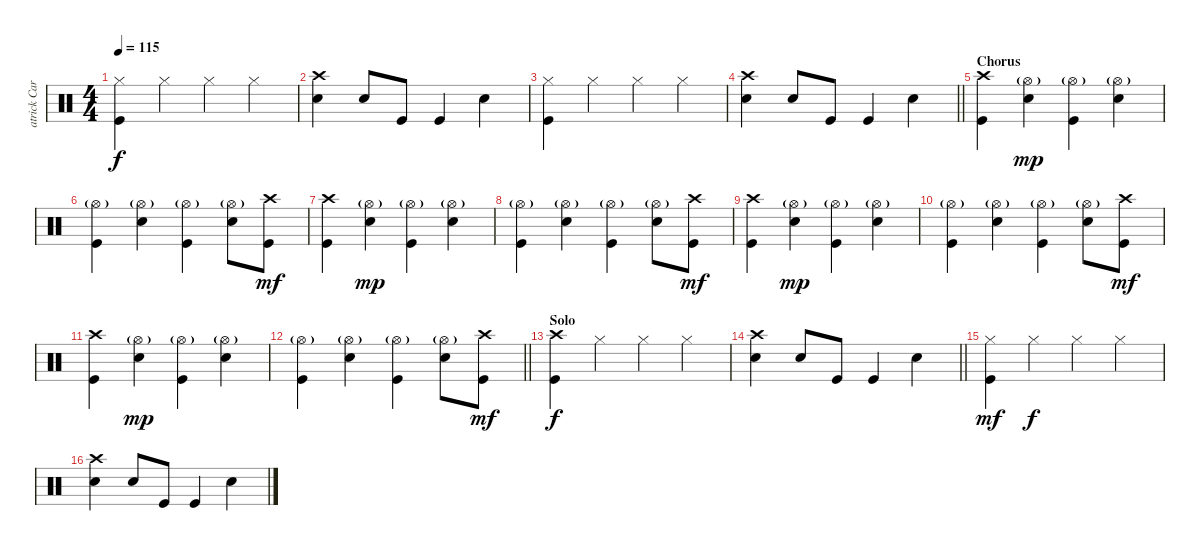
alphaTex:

\track ("atrick Carney - Percussion" "atrick Car") {instrument percussion}
\staff {score}
\articulation defaults
\ts (4 4)
\tempo 115
\clef neutral
\ks c
("Hi-Hat (closed)" "Kick (hit)").4{dy f} "Hi-Hat (closed)".4 "Hi-Hat (closed)".4 "Hi-Hat (closed)".4 |
("Crash high (hit)" "Electric Snare (hit)").4 "Electric Snare (hit)".8 "Kick (hit)".8 "Kick (hit)".4 "Electric Snare (hit)".4 |
("Hi-Hat (closed)" "Kick (hit)").4 "Hi-Hat (closed)".4 "Hi-Hat (closed)".4 "Hi-Hat (closed)".4 |
\barLineRight lightlight
("Crash high (hit)" "Electric Snare (hit)").4 "Electric Snare (hit)".8 "Kick (hit)".8 "Kick (hit)".4 "Electric Snare (hit)".4 |
\section ("" "Chorus")
("Crash high (hit)" "Kick (hit)").4 ("Hi-Hat (open)"{g} "Electric Snare (hit)").4{dy mp} ("Hi-Hat (open)"{g} "Kick (hit)").4 ("Hi-Hat (open)"{g} "Electric Snare (hit)").4 |
("Hi-Hat (open)"{g} "Kick (hit)").4 ("Hi-Hat (open)"{g} "Electric Snare (hit)").4 ("Hi-Hat (open)"{g} "Kick (hit)").4 ("Hi-Hat (open)"{g} "Electric Snare (hit)").8 ("Crash high (hit)" "Kick (hit)").8{dy mf} |
("Crash high (hit)" "Kick (hit)").4 ("Hi-Hat (open)"{g} "Electric Snare (hit)").4{dy mp} ("Hi-Hat (open)"{g} "Kick (hit)").4 ("Hi-Hat (open)"{g} "Electric Snare (hit)").4 |
("Hi-Hat (open)"{g} "Kick (hit)").4 ("Hi-Hat (open)"{g} "Electric Snare (hit)").4 ("Hi-Hat (open)"{g} "Kick (hit)").4 ("Hi-Hat (open)"{g} "Electric Snare (hit)").8 ("Crash high (hit)" "Kick (hit)").8{dy mf} |
("Crash high (hit)" "Kick (hit)").4 ("Hi-Hat (open)"{g} "Electric Snare (hit)").4{dy mp} ("Hi-Hat (open)"{g} "Kick (hit)").4 ("Hi-Hat (open)"{g} "Electric Snare (hit)").4 |
("Hi-Hat (open)"{g} "Kick (hit)").4 ("Hi-Hat (open)"{g} "Electric Snare (hit)").4 ("Hi-Hat (open)"{g} "Kick (hit)").4 ("Hi-Hat (open)"{g} "Electric Snare (hit)").8 ("Crash high (hit)" "Kick (hit)").8{dy mf} |
("Crash high (hit)" "Kick (hit)").4 ("Hi-Hat (open)"{g} "Electric Snare (hit)").4{dy mp} ("Hi-Hat (open)"{g} "Kick (hit)").4 ("Hi-Hat (open)"{g} "Electric Snare (hit)").4 |
\barLineRight lightlight
("Hi-Hat (open)"{g} "Kick (hit)").4 ("Hi-Hat (open)"{g} "Electric Snare (hit)").4 ("Hi-Hat (open)"{g} "Kick (hit)").4 ("Hi-Hat (open)"{g} "Electric Snare (hit)").8 ("Crash high (hit)" "Kick (hit)").8{dy mf} |
\section ("" "Solo")
("Crash high (hit)" "Kick (hit)").4{dy f} "Hi-Hat (closed)".4 "Hi-Hat (closed)".4 "Hi-Hat (closed)".4 |
\barLineRight lightlight
("Crash high (hit)" "Electric Snare (hit)").4 "Electric Snare (hit)".8 "Kick (hit)".8 "Kick (hit)".4 "Electric Snare (hit)".4 |
("Hi-Hat (closed)" "Kick (hit)").4{dy mf} "Hi-Hat (closed)".4{dy f} "Hi-Hat (closed)".4 "Hi-Hat (closed)".4 |
("Crash high (hit)" "Electric Snare (hit)").4 "Electric Snare (hit)".8 "Kick (hit)".8 "Kick (hit)".4 "Electric Snare (hit)".4
